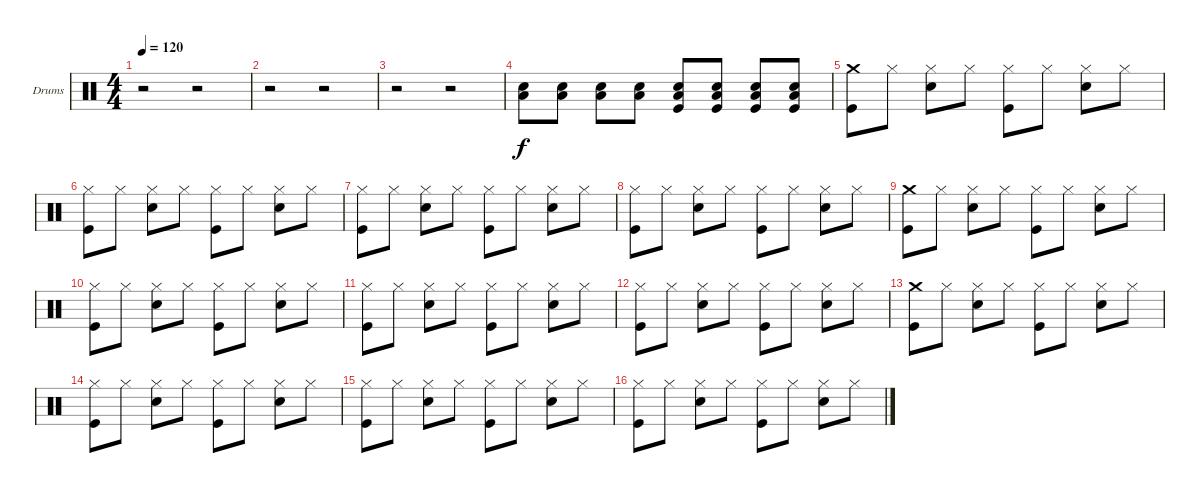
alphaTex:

\bracketExtendMode groupsimilarinstruments
\firstSystemTrackNameOrientation horizontal
\otherSystemsTrackNameOrientation horizontal
\track ("Drumkit" "Drums") {instrument percussion}
\staff {score}
\articulation defaults
\ts (4 4)
\tempo 120
\clef neutral
\ks c
r.2{dy f} r.2 |
r.2 r.2 |
r.2 r.2 |
("Snare (hit) 2" "Low Tom (hit)").8 ("Snare (hit) 2" "Low Tom (hit)").8 ("Snare (hit) 2" "Low Tom (hit)").8 ("Snare (hit) 2" "Low Tom (hit)").8 ("Snare (hit) 2" "Low Tom (hit)" "Kick (hit)").8 ("Snare (hit) 2" "Low Tom (hit)" "Kick (hit)").8 ("Snare (hit) 2" "Low Tom (hit)" "Kick (hit)").8 ("Snare (hit) 2" "Low Tom (hit)" "Kick (hit)").8 |
("Crash medium (hit)" "Kick (hit)").8 "Hi-Hat (closed)".8 ("Hi-Hat (closed)" "Snare (hit) 2").8 "Hi-Hat (closed)".8 ("Hi-Hat (closed)" "Kick (hit)").8 "Hi-Hat (closed)".8 ("Hi-Hat (closed)" "Snare (hit) 2").8 "Hi-Hat (closed)".8 |
("Hi-Hat (closed)" "Kick (hit)").8 "Hi-Hat (closed)".8 ("Hi-Hat (closed)" "Snare (hit) 2").8 "Hi-Hat (closed)".8 ("Hi-Hat (closed)" "Kick (hit)").8 "Hi-Hat (closed)".8 ("Hi-Hat (closed)" "Snare (hit) 2").8 "Hi-Hat (closed)".8 |
("Hi-Hat (closed)" "Kick (hit)").8 "Hi-Hat (closed)".8 ("Hi-Hat (closed)" "Snare (hit) 2").8 "Hi-Hat (closed)".8 ("Hi-Hat (closed)" "Kick (hit)").8 "Hi-Hat (closed)".8 ("Hi-Hat (closed)" "Snare (hit) 2").8 "Hi-Hat (closed)".8 |
("Hi-Hat (closed)" "Kick (hit)").8 "Hi-Hat (closed)".8 ("Hi-Hat (closed)" "Snare (hit) 2").8 "Hi-Hat (closed)".8 ("Hi-Hat (closed)" "Kick (hit)").8 "Hi-Hat (closed)".8 ("Hi-Hat (closed)" "Snare (hit) 2").8 "Hi-Hat (closed)".8 |
("Crash medium (hit)" "Kick (hit)").8 "Hi-Hat (closed)".8 ("Hi-Hat (closed)" "Snare (hit) 2").8 "Hi-Hat (closed)".8 ("Hi-Hat (closed)" "Kick (hit)").8 "Hi-Hat (closed)".8 ("Hi-Hat (closed)" "Snare (hit) 2").8 "Hi-Hat (closed)".8 |
("Hi-Hat (closed)" "Kick (hit)").8 "Hi-Hat (closed)".8 ("Hi-Hat (closed)" "Snare (hit) 2").8 "Hi-Hat (closed)".8 ("Hi-Hat (closed)" "Kick (hit)").8 "Hi-Hat (closed)".8 ("Hi-Hat (closed)" "Snare (hit) 2").8 "Hi-Hat (closed)".8 |
("Hi-Hat (closed)" "Kick (hit)").8 "Hi-Hat (closed)".8 ("Hi-Hat (closed)" "Snare (hit) 2").8 "Hi-Hat (closed)".8 ("Hi-Hat (closed)" "Kick (hit)").8 "Hi-Hat (closed)".8 ("Hi-Hat (closed)" "Snare (hit) 2").8 "Hi-Hat (closed)".8 |
("Hi-Hat (closed)" "Kick (hit)").8 "Hi-Hat (closed)".8 ("Hi-Hat (closed)" "Snare (hit) 2").8 "Hi-Hat (closed)".8 ("Hi-Hat (closed)" "Kick (hit)").8 "Hi-Hat (closed)".8 ("Hi-Hat (closed)" "Snare (hit) 2").8 "Hi-Hat (closed)".8 |
("Crash medium (hit)" "Kick (hit)").8 "Hi-Hat (closed)".8 ("Hi-Hat (closed)" "Snare (hit) 2").8 "Hi-Hat (closed)".8 ("Hi-Hat (closed)" "Kick (hit)").8 "Hi-Hat (closed)".8 ("Hi-Hat (closed)" "Snare (hit) 2").8 "Hi-Hat (closed)".8 |
("Hi-Hat (closed)" "Kick (hit)").8 "Hi-Hat (closed)".8 ("Hi-Hat (closed)" "Snare (hit) 2").8 "Hi-Hat (closed)".8 ("Hi-Hat (closed)" "Kick (hit)").8 "Hi-Hat (closed)".8 ("Hi-Hat (closed)" "Snare (hit) 2").8 "Hi-Hat (closed)".8 |
("Hi-Hat (closed)" "Kick (hit)").8 "Hi-Hat (closed)".8 ("Hi-Hat (closed)" "Snare (hit) 2").8 "Hi-Hat (closed)".8 ("Hi-Hat (closed)" "Kick (hit)").8 "Hi-Hat (closed)".8 ("Hi-Hat (closed)" "Snare (hit) 2").8 "Hi-Hat (closed)".8 |
("Hi-Hat (closed)" "Kick (hit)").8 "Hi-Hat (closed)".8 ("Hi-Hat (closed)" "Snare (hit) 2").8 "Hi-Hat (closed)".8 ("Hi-Hat (closed)" "Kick (hit)").8 "Hi-Hat (closed)".8 ("Hi-Hat (closed)" "Snare (hit) 2").8 "Hi-Hat (closed)".8
